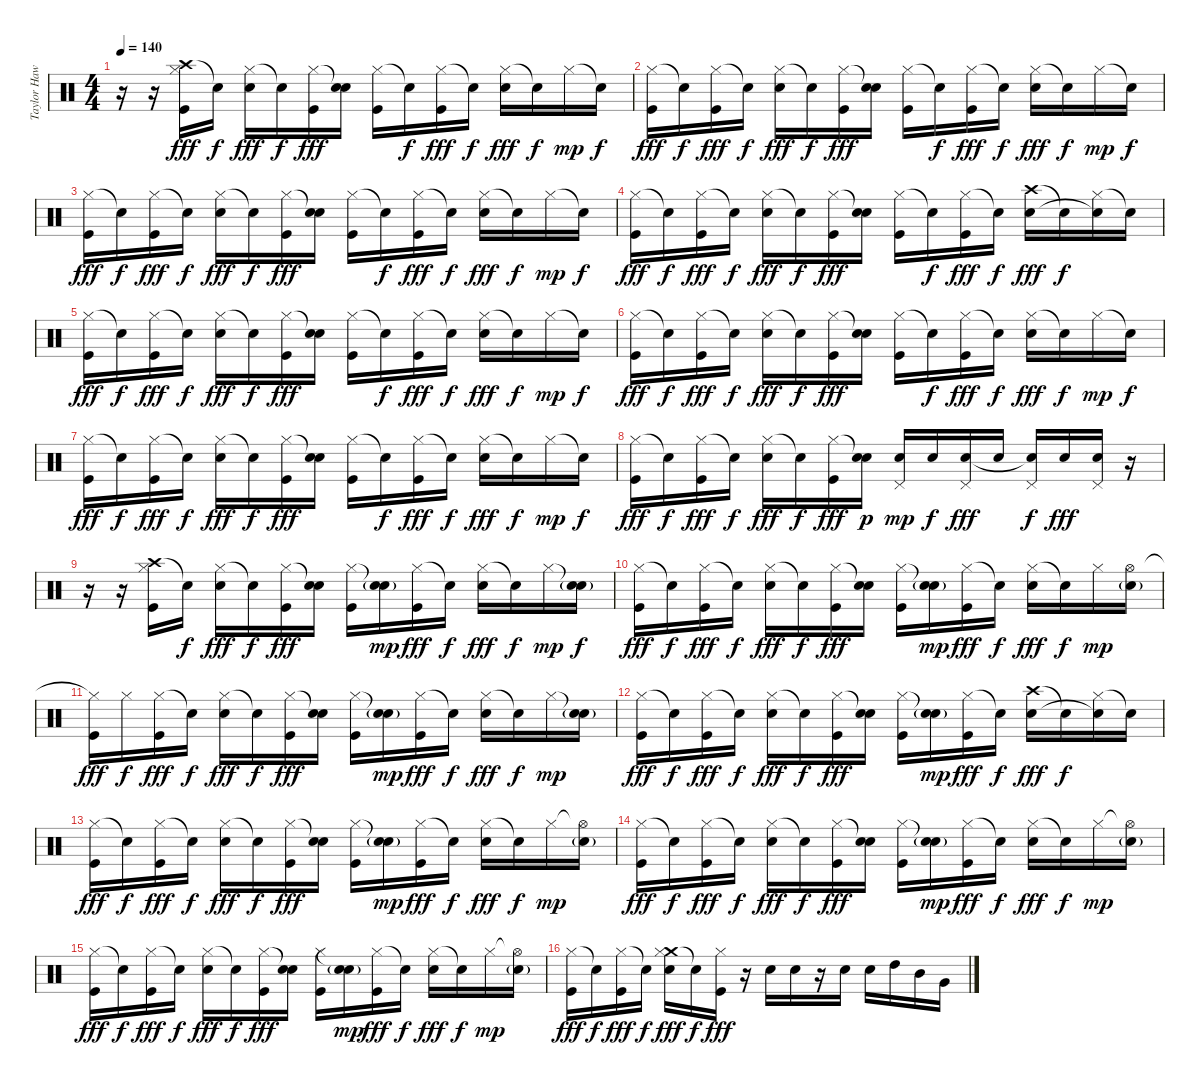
\track ("Taylor Hawkings (Batería)" "Taylor Haw") {instrument percussion}
\staff {score}
\articulation defaults
\ts (4 4)
\tempo 140
\clef neutral
\ks c
r.16{dy fff} r.16 ("Crash high (hit)" "Hi-Hat (closed)" "Kick (hit)").16 "Snare (hit)"{t}.16{dy f} ("Hi-Hat (closed)" "Electric Snare (hit)").16{dy fff} "Snare (hit)"{t}.16{dy f} ("Hi-Hat (closed)" "Kick (hit)").16{dy fff} ("Snare (hit)"{t} "Electric Snare (hit)").16 ("Hi-Hat (closed)" "Kick (hit)").16 "Snare (hit)"{t}.16{dy f} ("Hi-Hat (closed)" "Kick (hit)").16{dy fff} "Snare (hit)"{t}.16{dy f} ("Hi-Hat (closed)" "Electric Snare (hit)").16{dy fff} "Snare (hit)"{t}.16{dy f} "Hi-Hat (closed)".16{dy mp} "Snare (hit)"{t}.16{dy f} |
("Hi-Hat (closed)" "Kick (hit)").16{dy fff} "Snare (hit)"{t}.16{dy f} ("Hi-Hat (closed)" "Kick (hit)").16{dy fff} "Snare (hit)"{t}.16{dy f} ("Hi-Hat (closed)" "Electric Snare (hit)").16{dy fff} "Snare (hit)"{t}.16{dy f} ("Hi-Hat (closed)" "Kick (hit)").16{dy fff} ("Snare (hit)"{t} "Electric Snare (hit)").16 ("Hi-Hat (closed)" "Kick (hit)").16 "Snare (hit)"{t}.16{dy f} ("Hi-Hat (closed)" "Kick (hit)").16{dy fff} "Snare (hit)"{t}.16{dy f} ("Hi-Hat (closed)" "Electric Snare (hit)").16{dy fff} "Snare (hit)"{t}.16{dy f} "Hi-Hat (closed)".16{dy mp} "Snare (hit)"{t}.16{dy f} |
("Hi-Hat (closed)" "Kick (hit)").16{dy fff} "Snare (hit)"{t}.16{dy f} ("Hi-Hat (closed)" "Kick (hit)").16{dy fff} "Snare (hit)"{t}.16{dy f} ("Hi-Hat (closed)" "Electric Snare (hit)").16{dy fff} "Snare (hit)"{t}.16{dy f} ("Hi-Hat (closed)" "Kick (hit)").16{dy fff} ("Snare (hit)"{t} "Electric Snare (hit)").16 ("Hi-Hat (closed)" "Kick (hit)").16 "Snare (hit)"{t}.16{dy f} ("Hi-Hat (closed)" "Kick (hit)").16{dy fff} "Snare (hit)"{t}.16{dy f} ("Hi-Hat (closed)" "Electric Snare (hit)").16{dy fff} "Snare (hit)"{t}.16{dy f} "Hi-Hat (closed)".16{dy mp} "Snare (hit)"{t}.16{dy f} |
("Hi-Hat (closed)" "Kick (hit)").16{dy fff} "Snare (hit)"{t}.16{dy f} ("Hi-Hat (closed)" "Kick (hit)").16{dy fff} "Snare (hit)"{t}.16{dy f} ("Hi-Hat (closed)" "Electric Snare (hit)").16{dy fff} "Snare (hit)"{t}.16{dy f} ("Hi-Hat (closed)" "Kick (hit)").16{dy fff} ("Snare (hit)"{t} "Electric Snare (hit)").16 ("Hi-Hat (closed)" "Kick (hit)").16 "Snare (hit)"{t}.16{dy f} ("Hi-Hat (closed)" "Kick (hit)").16{dy fff} "Snare (hit)"{t}.16{dy f} ("Crash high (hit)" "Electric Snare (hit)").16{dy fff} "Snare (hit)"{t}.16{dy f} ("Hi-Hat (closed)" "Snare (hit)"{t}).16 "Snare (hit)"{t}.16 |
("Hi-Hat (closed)" "Kick (hit)").16{dy fff} "Snare (hit)"{t}.16{dy f} ("Hi-Hat (closed)" "Kick (hit)").16{dy fff} "Snare (hit)"{t}.16{dy f} ("Hi-Hat (closed)" "Electric Snare (hit)").16{dy fff} "Snare (hit)"{t}.16{dy f} ("Hi-Hat (closed)" "Kick (hit)").16{dy fff} ("Snare (hit)"{t} "Electric Snare (hit)").16 ("Hi-Hat (closed)" "Kick (hit)").16 "Snare (hit)"{t}.16{dy f} ("Hi-Hat (closed)" "Kick (hit)").16{dy fff} "Snare (hit)"{t}.16{dy f} ("Hi-Hat (closed)" "Electric Snare (hit)").16{dy fff} "Snare (hit)"{t}.16{dy f} "Hi-Hat (closed)".16{dy mp} "Snare (hit)"{t}.16{dy f} |
("Hi-Hat (closed)" "Kick (hit)").16{dy fff} "Snare (hit)"{t}.16{dy f} ("Hi-Hat (closed)" "Kick (hit)").16{dy fff} "Snare (hit)"{t}.16{dy f} ("Hi-Hat (closed)" "Electric Snare (hit)").16{dy fff} "Snare (hit)"{t}.16{dy f} ("Hi-Hat (closed)" "Kick (hit)").16{dy fff} ("Snare (hit)"{t} "Electric Snare (hit)").16 ("Hi-Hat (closed)" "Kick (hit)").16 "Snare (hit)"{t}.16{dy f} ("Hi-Hat (closed)" "Kick (hit)").16{dy fff} "Snare (hit)"{t}.16{dy f} ("Hi-Hat (closed)" "Electric Snare (hit)").16{dy fff} "Snare (hit)"{t}.16{dy f} "Hi-Hat (closed)".16{dy mp} "Snare (hit)"{t}.16{dy f} |
("Hi-Hat (closed)" "Kick (hit)").16{dy fff} "Snare (hit)"{t}.16{dy f} ("Hi-Hat (closed)" "Kick (hit)").16{dy fff} "Snare (hit)"{t}.16{dy f} ("Hi-Hat (closed)" "Electric Snare (hit)").16{dy fff} "Snare (hit)"{t}.16{dy f} ("Hi-Hat (closed)" "Kick (hit)").16{dy fff} ("Snare (hit)"{t} "Electric Snare (hit)").16 ("Hi-Hat (closed)" "Kick (hit)").16 "Snare (hit)"{t}.16{dy f} ("Hi-Hat (closed)" "Kick (hit)").16{dy fff} "Snare (hit)"{t}.16{dy f} ("Hi-Hat (closed)" "Electric Snare (hit)").16{dy fff} "Snare (hit)"{t}.16{dy f} "Hi-Hat (closed)".16{dy mp} "Snare (hit)"{t}.16{dy f} |
("Hi-Hat (closed)" "Kick (hit)").16{dy fff} "Snare (hit)"{t}.16{dy f} ("Hi-Hat (closed)" "Kick (hit)").16{dy fff} "Snare (hit)"{t}.16{dy f} ("Hi-Hat (closed)" "Electric Snare (hit)").16{dy fff} "Snare (hit)"{t}.16{dy f} ("Hi-Hat (closed)" "Kick (hit)").16{dy fff} ("Snare (hit)"{t} "Electric Snare (hit)").16{dy p} ("Pedal Hi-Hat (hit)" "Electric Snare (hit)").16{dy mp} "Electric Snare (hit)".16{dy f} ("Pedal Hi-Hat (hit)" "Electric Snare (hit)").16{dy fff} "Electric Snare (hit)".16 ("Pedal Hi-Hat (hit)" "Snare (hit)"{t}).16{dy f} "Electric Snare (hit)".16{dy fff} ("Pedal Hi-Hat (hit)" "Electric Snare (hit)").16 r.16 |
r.16 r.16 ("Crash high (hit)" "Hi-Hat (closed)" "Kick (hit)").16 "Snare (hit)"{t}.16{dy f} ("Hi-Hat (closed)" "Electric Snare (hit)").16{dy fff} "Snare (hit)"{t}.16{dy f} ("Hi-Hat (closed)" "Kick (hit)").16{dy fff} ("Snare (hit)"{t} "Electric Snare (hit)").16 ("Hi-Hat (closed)" "Kick (hit)").16 ("Snare (hit)"{t} "Electric Snare (hit)"{g}).16{dy mp} ("Hi-Hat (closed)" "Kick (hit)").16{dy fff} "Snare (hit)"{t}.16{dy f} ("Hi-Hat (closed)" "Electric Snare (hit)").16{dy fff} "Snare (hit)"{t}.16{dy f} "Hi-Hat (closed)".16{dy mp} ("Snare (hit)"{t} "Electric Snare (hit)"{g}).16{dy f} |
("Hi-Hat (closed)" "Kick (hit)").16{dy fff} "Snare (hit)"{t}.16{dy f} ("Hi-Hat (closed)" "Kick (hit)").16{dy fff} "Snare (hit)"{t}.16{dy f} ("Hi-Hat (closed)" "Electric Snare (hit)").16{dy fff} "Snare (hit)"{t}.16{dy f} ("Hi-Hat (closed)" "Kick (hit)").16{dy fff} ("Snare (hit)"{t} "Electric Snare (hit)").16 ("Hi-Hat (closed)" "Kick (hit)").16 ("Snare (hit)"{t} "Electric Snare (hit)"{g}).16{dy mp} ("Hi-Hat (closed)" "Kick (hit)").16{dy fff} "Snare (hit)"{t}.16{dy f} ("Hi-Hat (closed)" "Electric Snare (hit)").16{dy fff} "Snare (hit)"{t}.16{dy f} "Hi-Hat (closed)".16{dy mp} ("Hi-Hat (open)" "Electric Snare (hit)"{g}).16 |
("Hi-Hat (closed)"{t} "Kick (hit)").16{dy fff} "Hi-Hat (closed)".16{dy f} ("Hi-Hat (closed)" "Kick (hit)").16{dy fff} "Snare (hit)"{t}.16{dy f} ("Hi-Hat (closed)" "Electric Snare (hit)").16{dy fff} "Snare (hit)"{t}.16{dy f} ("Hi-Hat (closed)" "Kick (hit)").16{dy fff} ("Snare (hit)"{t} "Electric Snare (hit)").16 ("Hi-Hat (closed)" "Kick (hit)").16 ("Snare (hit)"{t} "Electric Snare (hit)"{g}).16{dy mp} ("Hi-Hat (closed)" "Kick (hit)").16{dy fff} "Snare (hit)"{t}.16{dy f} ("Hi-Hat (closed)" "Electric Snare (hit)").16{dy fff} "Snare (hit)"{t}.16{dy f} "Hi-Hat (closed)".16{dy mp} ("Snare (hit)"{t} "Electric Snare (hit)"{g}).16 |
("Hi-Hat (closed)" "Kick (hit)").16{dy fff} "Snare (hit)"{t}.16{dy f} ("Hi-Hat (closed)" "Kick (hit)").16{dy fff} "Snare (hit)"{t}.16{dy f} ("Hi-Hat (closed)" "Electric Snare (hit)").16{dy fff} "Snare (hit)"{t}.16{dy f} ("Hi-Hat (closed)" "Kick (hit)").16{dy fff} ("Snare (hit)"{t} "Electric Snare (hit)").16 ("Hi-Hat (closed)" "Kick (hit)").16 ("Snare (hit)"{t} "Electric Snare (hit)"{g}).16{dy mp} ("Hi-Hat (closed)" "Kick (hit)").16{dy fff} "Snare (hit)"{t}.16{dy f} ("Crash high (hit)" "Electric Snare (hit)").16{dy fff} "Snare (hit)"{t}.16{dy f} ("Hi-Hat (closed)" "Snare (hit)"{t}).16 "Snare (hit)"{t}.16 |
("Hi-Hat (closed)" "Kick (hit)").16{dy fff} "Snare (hit)"{t}.16{dy f} ("Hi-Hat (closed)" "Kick (hit)").16{dy fff} "Snare (hit)"{t}.16{dy f} ("Hi-Hat (closed)" "Electric Snare (hit)").16{dy fff} "Snare (hit)"{t}.16{dy f} ("Hi-Hat (closed)" "Kick (hit)").16{dy fff} ("Snare (hit)"{t} "Electric Snare (hit)").16 ("Hi-Hat (closed)" "Kick (hit)").16 ("Snare (hit)"{t} "Electric Snare (hit)"{g}).16{dy mp} ("Hi-Hat (closed)" "Kick (hit)").16{dy fff} "Snare (hit)"{t}.16{dy f} ("Hi-Hat (closed)" "Electric Snare (hit)").16{dy fff} "Snare (hit)"{t}.16{dy f} "Hi-Hat (closed)".16{dy mp} ("Hi-Hat (open)"{t} "Electric Snare (hit)"{g}).16 |
("Hi-Hat (closed)" "Kick (hit)").16{dy fff} "Snare (hit)"{t}.16{dy f} ("Hi-Hat (closed)" "Kick (hit)").16{dy fff} "Snare (hit)"{t}.16{dy f} ("Hi-Hat (closed)" "Electric Snare (hit)").16{dy fff} "Snare (hit)"{t}.16{dy f} ("Hi-Hat (closed)" "Kick (hit)").16{dy fff} ("Snare (hit)"{t} "Electric Snare (hit)").16 ("Hi-Hat (closed)" "Kick (hit)").16 ("Snare (hit)"{t} "Electric Snare (hit)"{g}).16{dy mp} ("Hi-Hat (closed)" "Kick (hit)").16{dy fff} "Snare (hit)"{t}.16{dy f} ("Hi-Hat (closed)" "Electric Snare (hit)").16{dy fff} "Snare (hit)"{t}.16{dy f} "Hi-Hat (closed)".16{dy mp} ("Hi-Hat (open)"{t} "Electric Snare (hit)"{g}).16 |
("Hi-Hat (closed)" "Kick (hit)").16{dy fff} "Snare (hit)"{t}.16{dy f} ("Hi-Hat (closed)" "Kick (hit)").16{dy fff} "Snare (hit)"{t}.16{dy f} ("Hi-Hat (closed)" "Electric Snare (hit)").16{dy fff} "Snare (hit)"{t}.16{dy f} ("Hi-Hat (closed)" "Kick (hit)").16{dy fff} ("Snare (hit)"{t} "Electric Snare (hit)").16 ("Hi-Hat (closed)" "Kick (hit)").16 ("Snare (hit)"{t} "Electric Snare (hit)"{g}).16{dy mp} ("Hi-Hat (closed)" "Kick (hit)").16{dy fff} "Snare (hit)"{t}.16{dy f} ("Hi-Hat (closed)" "Electric Snare (hit)").16{dy fff} "Snare (hit)"{t}.16{dy f} "Hi-Hat (closed)".16{dy mp} ("Hi-Hat (open)"{t} "Electric Snare (hit)"{g}).16 |
("Hi-Hat (closed)" "Kick (hit)").16{dy fff} "Snare (hit)"{t}.16{dy f} ("Hi-Hat (closed)" "Kick (hit)").16{dy fff} "Snare (hit)"{t}.16{dy f} ("Crash medium (hit)" "Hi-Hat (closed)" "Electric Snare (hit)").16{dy fff} "Snare (hit)"{t}.16{dy f} ("Hi-Hat (closed)" "Kick (hit)").16{dy fff} r.16 "Electric Snare (hit)".16 "Electric Snare (hit)".16 r.16 "Electric Snare (hit)".16 "Electric Snare (hit)".16 "High Tom (hit)".16 "Mid Tom (hit)".16 "Very Low Tom (hit)".16
